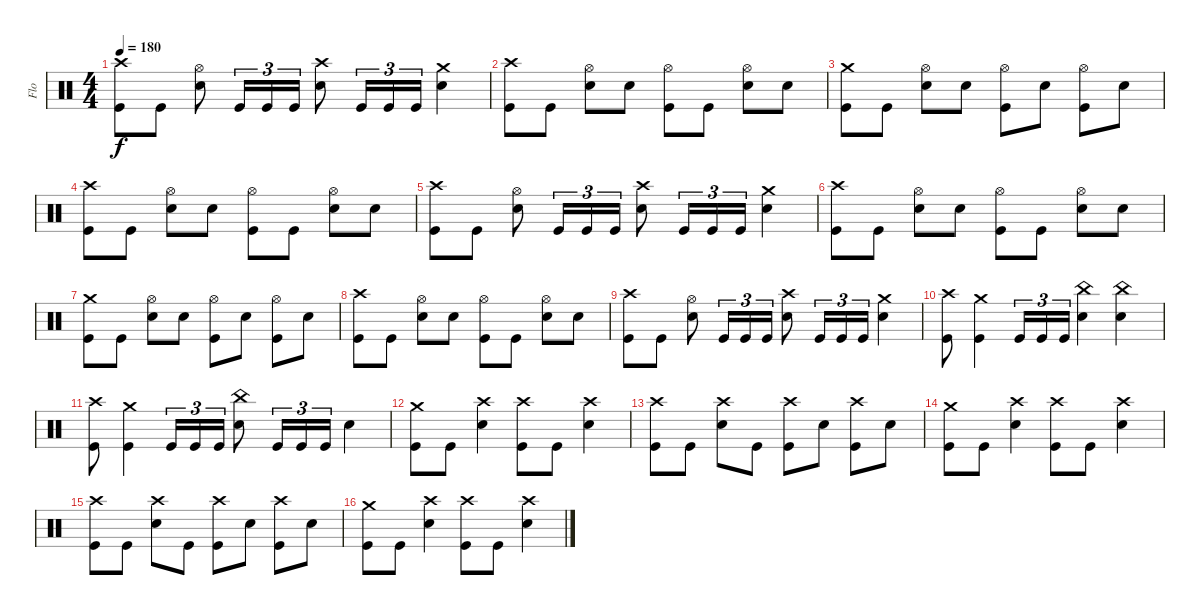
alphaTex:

\track ("Flo" "Flo") {instrument percussion}
\staff {score}
\articulation defaults
\ts (4 4)
\tempo 180
\clef neutral
\ks c
("Crash high (hit)" "Kick (hit)").8{dy f} "Kick (hit)".8 ("Hi-Hat (open)" "Snare (hit) 2").8 "Kick (hit)".16{tu (3 2)} "Kick (hit)".16{tu (3 2)} "Kick (hit)".16{tu (3 2)} ("Crash high (hit)" "Snare (hit) 2").8 "Kick (hit)".16{tu (3 2)} "Kick (hit)".16{tu (3 2)} "Kick (hit)".16{tu (3 2)} ("Crash medium (hit)" "Snare (hit) 2").4 |
("Crash high (hit)" "Kick (hit)").8 "Kick (hit)".8 ("Hi-Hat (open)" "Snare (hit) 2").8 "Snare (hit) 2".8 ("Hi-Hat (open)" "Kick (hit)").8 "Kick (hit)".8 ("Hi-Hat (open)" "Snare (hit) 2").8 "Snare (hit) 2".8 |
("Crash medium (hit)" "Kick (hit)").8 "Kick (hit)".8 ("Hi-Hat (open)" "Snare (hit) 2").8 "Snare (hit) 2".8 ("Hi-Hat (open)" "Kick (hit)").8 "Snare (hit) 2".8 ("Hi-Hat (open)" "Kick (hit)").8 "Snare (hit) 2".8 |
("Crash high (hit)" "Kick (hit)").8 "Kick (hit)".8 ("Hi-Hat (open)" "Snare (hit) 2").8 "Snare (hit) 2".8 ("Hi-Hat (open)" "Kick (hit)").8 "Kick (hit)".8 ("Hi-Hat (open)" "Snare (hit) 2").8 "Snare (hit) 2".8 |
("Crash high (hit)" "Kick (hit)").8 "Kick (hit)".8 ("Hi-Hat (open)" "Snare (hit) 2").8 "Kick (hit)".16{tu (3 2)} "Kick (hit)".16{tu (3 2)} "Kick (hit)".16{tu (3 2)} ("Crash high (hit)" "Snare (hit) 2").8 "Kick (hit)".16{tu (3 2)} "Kick (hit)".16{tu (3 2)} "Kick (hit)".16{tu (3 2)} ("Crash medium (hit)" "Snare (hit) 2").4 |
("Crash high (hit)" "Kick (hit)").8 "Kick (hit)".8 ("Hi-Hat (open)" "Snare (hit) 2").8 "Snare (hit) 2".8 ("Hi-Hat (open)" "Kick (hit)").8 "Kick (hit)".8 ("Hi-Hat (open)" "Snare (hit) 2").8 "Snare (hit) 2".8 |
("Crash medium (hit)" "Kick (hit)").8 "Kick (hit)".8 ("Hi-Hat (open)" "Snare (hit) 2").8 "Snare (hit) 2".8 ("Hi-Hat (open)" "Kick (hit)").8 "Snare (hit) 2".8 ("Hi-Hat (open)" "Kick (hit)").8 "Snare (hit) 2".8 |
("Crash high (hit)" "Kick (hit)").8 "Kick (hit)".8 ("Hi-Hat (open)" "Snare (hit) 2").8 "Snare (hit) 2".8 ("Hi-Hat (open)" "Kick (hit)").8 "Kick (hit)".8 ("Hi-Hat (open)" "Snare (hit) 2").8 "Snare (hit) 2".8 |
("Crash high (hit)" "Kick (hit)").8 "Kick (hit)".8 ("Hi-Hat (open)" "Snare (hit) 2").8 "Kick (hit)".16{tu (3 2)} "Kick (hit)".16{tu (3 2)} "Kick (hit)".16{tu (3 2)} ("Crash high (hit)" "Snare (hit) 2").8 "Kick (hit)".16{tu (3 2)} "Kick (hit)".16{tu (3 2)} "Kick (hit)".16{tu (3 2)} ("Crash medium (hit)" "Snare (hit) 2").4 |
("Crash high (hit)" "Kick (hit)").8 ("Crash medium (hit)" "Kick (hit)").4 "Kick (hit)".16{tu (3 2)} "Kick (hit)".16{tu (3 2)} "Kick (hit)".16{tu (3 2)} ("China (hit)" "Snare (hit) 2").4 ("China (hit)" "Snare (hit) 2").4 |
("Crash high (hit)" "Kick (hit)").8 ("Crash medium (hit)" "Kick (hit)").4 "Kick (hit)".16{tu (3 2)} "Kick (hit)".16{tu (3 2)} "Kick (hit)".16{tu (3 2)} ("China (hit)" "Snare (hit) 2").8 "Kick (hit)".16{tu (3 2)} "Kick (hit)".16{tu (3 2)} "Kick (hit)".16{tu (3 2)} "Snare (hit) 2".4 |
("Crash medium (hit)" "Kick (hit)").8 "Kick (hit)".8 ("Crash high (hit)" "Snare (hit) 2").4 ("Crash high (hit)" "Kick (hit)").8 "Kick (hit)".8 ("Crash high (hit)" "Snare (hit) 2").4 |
("Crash high (hit)" "Kick (hit)").8 "Kick (hit)".8 ("Crash high (hit)" "Snare (hit) 2").8 "Kick (hit)".8 ("Crash high (hit)" "Kick (hit)").8 "Snare (hit) 2".8 ("Crash high (hit)" "Kick (hit)").8 "Snare (hit) 2".8 |
("Crash medium (hit)" "Kick (hit)").8 "Kick (hit)".8 ("Crash high (hit)" "Snare (hit) 2").4 ("Crash high (hit)" "Kick (hit)").8 "Kick (hit)".8 ("Crash high (hit)" "Snare (hit) 2").4 |
("Crash high (hit)" "Kick (hit)").8 "Kick (hit)".8 ("Crash high (hit)" "Snare (hit) 2").8 "Kick (hit)".8 ("Crash high (hit)" "Kick (hit)").8 "Snare (hit) 2".8 ("Crash high (hit)" "Kick (hit)").8 "Snare (hit) 2".8 |
("Crash medium (hit)" "Kick (hit)").8 "Kick (hit)".8 ("Crash high (hit)" "Snare (hit) 2").4 ("Crash high (hit)" "Kick (hit)").8 "Kick (hit)".8 ("Crash high (hit)" "Snare (hit) 2").4
